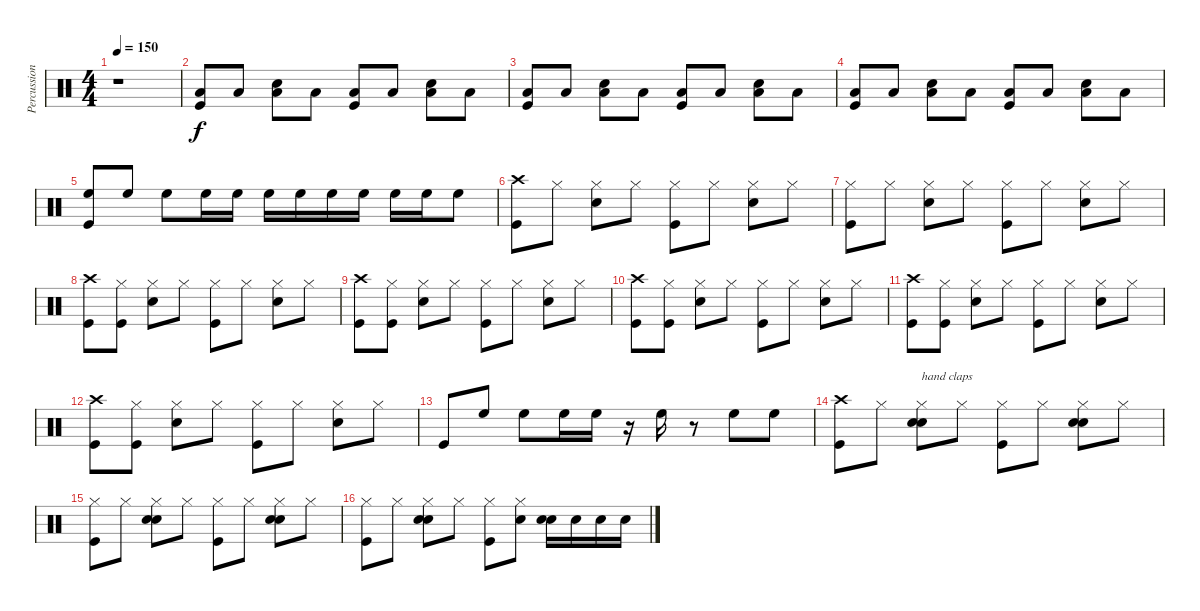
\track ("Percussion" "Percussion") {instrument percussion}
\staff {score}
\articulation defaults
\ts (4 4)
\tempo 150
\clef neutral
\ks c
r.1{dy f} |
("Low Tom (hit)" "Kick (hit)").8 "Low Tom (hit)".8 ("Snare (hit) 2" "Low Tom (hit)").8 "Low Tom (hit)".8 ("Low Tom (hit)" "Kick (hit)").8 "Low Tom (hit)".8 ("Snare (hit) 2" "Low Tom (hit)").8 "Low Tom (hit)".8 |
("Low Tom (hit)" "Kick (hit)").8 "Low Tom (hit)".8 ("Snare (hit) 2" "Low Tom (hit)").8 "Low Tom (hit)".8 ("Low Tom (hit)" "Kick (hit)").8 "Low Tom (hit)".8 ("Snare (hit) 2" "Low Tom (hit)").8 "Low Tom (hit)".8 |
("Low Tom (hit)" "Kick (hit)").8 "Low Tom (hit)".8 ("Snare (hit) 2" "Low Tom (hit)").8 "Low Tom (hit)".8 ("Low Tom (hit)" "Kick (hit)").8 "Low Tom (hit)".8 ("Snare (hit) 2" "Low Tom (hit)").8 "Low Tom (hit)".8 |
("High Floor Tom (hit)" "Kick (hit)").8 "High Floor Tom (hit)".8 "High Floor Tom (hit)".8 "High Floor Tom (hit)".16 "High Floor Tom (hit)".16 "High Floor Tom (hit)".16 "High Floor Tom (hit)".16 "High Floor Tom (hit)".16 "High Floor Tom (hit)".16 "High Floor Tom (hit)".16 "High Floor Tom (hit)".16 "High Floor Tom (hit)".8 |
("Crash high (hit)" "Kick (hit)").8 "Hi-Hat (closed)".8 ("Hi-Hat (closed)" "Snare (hit) 2").8 "Hi-Hat (closed)".8 ("Hi-Hat (closed)" "Kick (hit)").8 "Hi-Hat (closed)".8 ("Hi-Hat (closed)" "Snare (hit) 2").8 "Hi-Hat (closed)".8 |
("Hi-Hat (closed)" "Kick (hit)").8 "Hi-Hat (closed)".8 ("Hi-Hat (closed)" "Snare (hit) 2").8 "Hi-Hat (closed)".8 ("Hi-Hat (closed)" "Kick (hit)").8 "Hi-Hat (closed)".8 ("Hi-Hat (closed)" "Snare (hit) 2").8 "Hi-Hat (closed)".8 |
("Crash high (hit)" "Kick (hit)").8 ("Hi-Hat (closed)" "Kick (hit)").8 ("Hi-Hat (closed)" "Snare (hit) 2").8 "Hi-Hat (closed)".8 ("Hi-Hat (closed)" "Kick (hit)").8 "Hi-Hat (closed)".8 ("Hi-Hat (closed)" "Snare (hit) 2").8 "Hi-Hat (closed)".8 |
("Crash high (hit)" "Kick (hit)").8 ("Hi-Hat (closed)" "Kick (hit)").8 ("Hi-Hat (closed)" "Snare (hit) 2").8 "Hi-Hat (closed)".8 ("Hi-Hat (closed)" "Kick (hit)").8 "Hi-Hat (closed)".8 ("Hi-Hat (closed)" "Snare (hit) 2").8 "Hi-Hat (closed)".8 |
("Crash high (hit)" "Kick (hit)").8 ("Hi-Hat (closed)" "Kick (hit)").8 ("Hi-Hat (closed)" "Snare (hit) 2").8 "Hi-Hat (closed)".8 ("Hi-Hat (closed)" "Kick (hit)").8 "Hi-Hat (closed)".8 ("Hi-Hat (closed)" "Snare (hit) 2").8 "Hi-Hat (closed)".8 |
("Crash high (hit)" "Kick (hit)").8 ("Hi-Hat (closed)" "Kick (hit)").8 ("Hi-Hat (closed)" "Snare (hit) 2").8 "Hi-Hat (closed)".8 ("Hi-Hat (closed)" "Kick (hit)").8 "Hi-Hat (closed)".8 ("Hi-Hat (closed)" "Snare (hit) 2").8 "Hi-Hat (closed)".8 |
("Crash high (hit)" "Kick (hit)").8 ("Hi-Hat (closed)" "Kick (hit)").8 ("Hi-Hat (closed)" "Snare (hit) 2").8 "Hi-Hat (closed)".8 ("Hi-Hat (closed)" "Kick (hit)").8 "Hi-Hat (closed)".8 ("Hi-Hat (closed)" "Snare (hit) 2").8 "Hi-Hat (closed)".8 |
"Kick (hit)".8 "High Floor Tom (hit)".8 "High Floor Tom (hit)".8 "High Floor Tom (hit)".16 "High Floor Tom (hit)".16 r.16 "High Floor Tom (hit)".16 r.8 "High Floor Tom (hit)".8 "High Floor Tom (hit)".8 |
("Crash high (hit)" "Kick (hit)").8 "Hi-Hat (closed)".8 ("Hi-Hat (closed)" "Hand Clap (hit)" "Snare (hit) 2").8{txt "hand claps"} "Hi-Hat (closed)".8 ("Hi-Hat (closed)" "Kick (hit)").8 "Hi-Hat (closed)".8 ("Hi-Hat (closed)" "Hand Clap (hit)" "Snare (hit) 2").8 "Hi-Hat (closed)".8 |
("Hi-Hat (closed)" "Kick (hit)").8 "Hi-Hat (closed)".8 ("Hi-Hat (closed)" "Hand Clap (hit)" "Snare (hit) 2").8 "Hi-Hat (closed)".8 ("Hi-Hat (closed)" "Kick (hit)").8 "Hi-Hat (closed)".8 ("Hi-Hat (closed)" "Hand Clap (hit)" "Snare (hit) 2").8 "Hi-Hat (closed)".8 |
("Hi-Hat (closed)" "Kick (hit)").8 "Hi-Hat (closed)".8 ("Hi-Hat (closed)" "Hand Clap (hit)" "Snare (hit) 2").8 "Hi-Hat (closed)".8 ("Hi-Hat (closed)" "Kick (hit)").8 ("Hi-Hat (closed)" "Snare (hit) 2").8 ("Hand Clap (hit)" "Snare (hit) 2").16 "Snare (hit) 2".16 "Snare (hit) 2".16 "Snare (hit) 2".16
